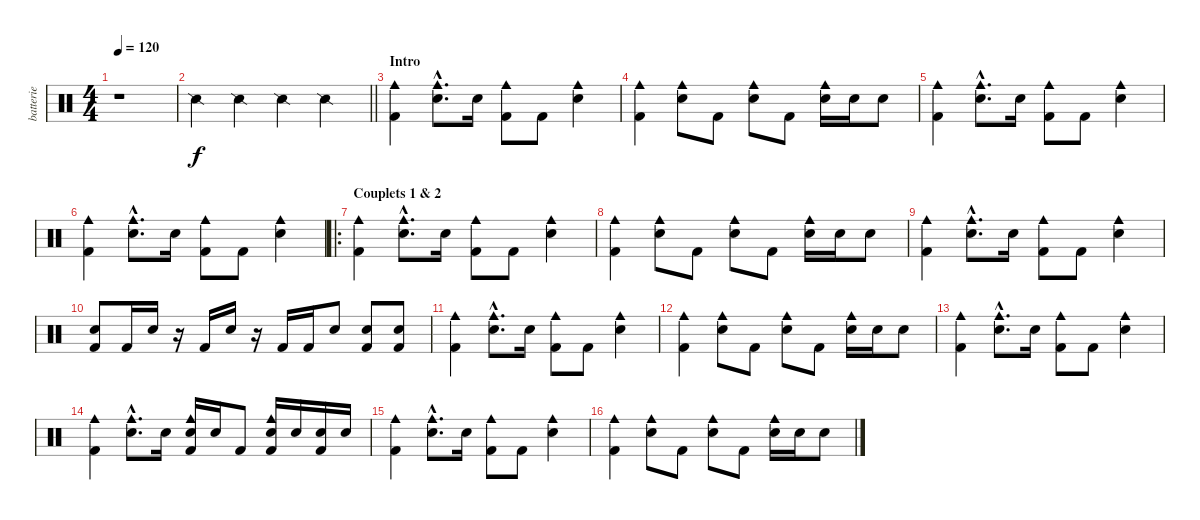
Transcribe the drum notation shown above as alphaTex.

\track ("batterie" "batterie") {instrument percussion}
\staff {score}
\articulation defaults
\ts (4 4)
\tempo 120
\clef neutral
\ks c
r.1{dy f} |
\barLineRight lightlight "Snare (side stick) 2".4 "Snare (side stick) 2".4 "Snare (side stick) 2".4 "Snare (side stick) 2".4
|
\section ("" "Intro")
("Kick (hit) 2" "Cowbell medium (hit)").4 ("Electric Snare (hit)"{hac} "Cowbell medium (hit)"{hac}).8{d} "Electric Snare (hit)".16 ("Kick (hit) 2" "Cowbell medium (hit)").8 "Kick (hit) 2".8 ("Electric Snare (hit)" "Cowbell medium (hit)").4 |
("Kick (hit) 2" "Cowbell medium (hit)").4 ("Electric Snare (hit)" "Cowbell medium (hit)").8 "Kick (hit) 2".8 ("Electric Snare (hit)" "Cowbell medium (hit)").8 "Kick (hit) 2".8 ("Electric Snare (hit)" "Cowbell medium (hit)").16 "Electric Snare (hit)".16 "Electric Snare (hit)".8 |
("Kick (hit) 2" "Cowbell medium (hit)").4 ("Electric Snare (hit)"{hac} "Cowbell medium (hit)"{hac}).8{d} "Electric Snare (hit)".16 ("Kick (hit) 2" "Cowbell medium (hit)").8 "Kick (hit) 2".8 ("Electric Snare (hit)" "Cowbell medium (hit)").4 |
("Kick (hit) 2" "Cowbell medium (hit)").4 ("Electric Snare (hit)"{hac} "Cowbell medium (hit)"{hac}).8{d} "Electric Snare (hit)".16 ("Kick (hit) 2" "Cowbell medium (hit)").8 "Kick (hit) 2".8 ("Electric Snare (hit)" "Cowbell medium (hit)").4 |
\ro
\section ("" "Couplets 1 & 2")
("Kick (hit) 2" "Cowbell medium (hit)").4 ("Electric Snare (hit)"{hac} "Cowbell medium (hit)"{hac}).8{d} "Electric Snare (hit)".16 ("Kick (hit) 2" "Cowbell medium (hit)").8 "Kick (hit) 2".8 ("Electric Snare (hit)" "Cowbell medium (hit)").4 |
("Kick (hit) 2" "Cowbell medium (hit)").4 ("Electric Snare (hit)" "Cowbell medium (hit)").8 "Kick (hit) 2".8 ("Electric Snare (hit)" "Cowbell medium (hit)").8 "Kick (hit) 2".8 ("Electric Snare (hit)" "Cowbell medium (hit)").16 "Electric Snare (hit)".16 "Electric Snare (hit)".8 |
("Kick (hit) 2" "Cowbell medium (hit)").4 ("Electric Snare (hit)"{hac} "Cowbell medium (hit)"{hac}).8{d} "Electric Snare (hit)".16 ("Kick (hit) 2" "Cowbell medium (hit)").8 "Kick (hit) 2".8 ("Electric Snare (hit)" "Cowbell medium (hit)").4 |
("Kick (hit) 2" "Electric Snare (hit)").8 "Kick (hit) 2".16 "Electric Snare (hit)".16 r.16 "Kick (hit) 2".16 "Electric Snare (hit)".16 r.16 "Kick (hit) 2".16 "Kick (hit) 2".16 "Electric Snare (hit)".8 ("Kick (hit) 2" "Electric Snare (hit)").8 ("Kick (hit) 2" "Electric Snare (hit)").8 |
("Kick (hit) 2" "Cowbell medium (hit)").4 ("Electric Snare (hit)"{hac} "Cowbell medium (hit)"{hac}).8{d} "Electric Snare (hit)".16 ("Kick (hit) 2" "Cowbell medium (hit)").8 "Kick (hit) 2".8 ("Electric Snare (hit)" "Cowbell medium (hit)").4 |
("Kick (hit) 2" "Cowbell medium (hit)").4 ("Electric Snare (hit)" "Cowbell medium (hit)").8 "Kick (hit) 2".8 ("Electric Snare (hit)" "Cowbell medium (hit)").8 "Kick (hit) 2".8 ("Electric Snare (hit)" "Cowbell medium (hit)").16 "Electric Snare (hit)".16 "Electric Snare (hit)".8 |
("Kick (hit) 2" "Cowbell medium (hit)").4 ("Electric Snare (hit)"{hac} "Cowbell medium (hit)"{hac}).8{d} "Electric Snare (hit)".16 ("Kick (hit) 2" "Cowbell medium (hit)").8 "Kick (hit) 2".8 ("Electric Snare (hit)" "Cowbell medium (hit)").4 |
("Kick (hit) 2" "Cowbell medium (hit)").4 ("Electric Snare (hit)"{hac} "Cowbell medium (hit)"{hac}).8{d} "Electric Snare (hit)".16 ("Kick (hit) 2" "Electric Snare (hit)" "Cowbell medium (hit)").16 "Electric Snare (hit)".16 "Kick (hit) 2".8 ("Kick (hit) 2" "Electric Snare (hit)" "Cowbell medium (hit)").16 "Electric Snare (hit)".16 ("Kick (hit) 2" "Electric Snare (hit)").16 "Electric Snare (hit)".16 |
("Kick (hit) 2" "Cowbell medium (hit)").4 ("Electric Snare (hit)"{hac} "Cowbell medium (hit)"{hac}).8{d} "Electric Snare (hit)".16 ("Kick (hit) 2" "Cowbell medium (hit)").8 "Kick (hit) 2".8 ("Electric Snare (hit)" "Cowbell medium (hit)").4 |
("Kick (hit) 2" "Cowbell medium (hit)").4 ("Electric Snare (hit)" "Cowbell medium (hit)").8 "Kick (hit) 2".8 ("Electric Snare (hit)" "Cowbell medium (hit)").8 "Kick (hit) 2".8 ("Electric Snare (hit)" "Cowbell medium (hit)").16 "Electric Snare (hit)".16 "Electric Snare (hit)".8
